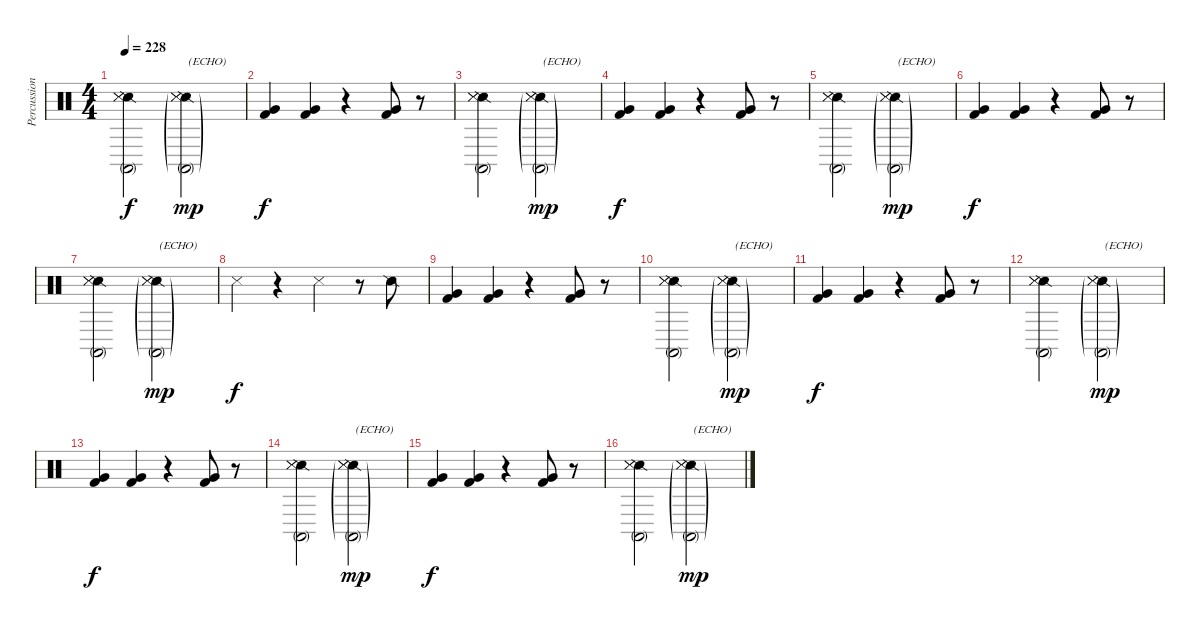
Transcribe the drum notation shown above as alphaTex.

\track ("Percussions" "Percussion") {instrument percussion}
\staff {score}
\articulation defaults
\ts (4 4)
\tempo 228
\clef neutral
\ks c
("Snare (side stick) 2" "Snare (side stick) 3" "Conga high (mute)" "Metronome (hit)").2{dy f} ("Snare (side stick) 2"{g} "Snare (side stick) 3"{g} "Conga high (mute)"{g} "Metronome (hit)"{g}).2{txt "(ECHO)" dy mp} |
("Kick (hit) 2" "Very Low Tom (hit)").4{dy f} ("Kick (hit) 2" "Very Low Tom (hit)").4 r.4 ("Kick (hit) 2" "Very Low Tom (hit)").8 r.8 |
("Snare (side stick) 2" "Snare (side stick) 3" "Conga high (mute)" "Metronome (hit)").2 ("Snare (side stick) 2"{g} "Snare (side stick) 3"{g} "Conga high (mute)"{g} "Metronome (hit)"{g}).2{txt "(ECHO)" dy mp} |
("Kick (hit) 2" "Very Low Tom (hit)").4{dy f} ("Kick (hit) 2" "Very Low Tom (hit)").4 r.4 ("Kick (hit) 2" "Very Low Tom (hit)").8 r.8 |
("Snare (side stick) 2" "Snare (side stick) 3" "Conga high (mute)" "Metronome (hit)").2 ("Snare (side stick) 2"{g} "Snare (side stick) 3"{g} "Conga high (mute)"{g} "Metronome (hit)"{g}).2{txt "(ECHO)" dy mp} |
("Kick (hit) 2" "Very Low Tom (hit)").4{dy f} ("Kick (hit) 2" "Very Low Tom (hit)").4 r.4 ("Kick (hit) 2" "Very Low Tom (hit)").8 r.8 |
("Snare (side stick) 2" "Snare (side stick) 3" "Conga high (mute)" "Metronome (hit)").2 ("Snare (side stick) 2"{g} "Snare (side stick) 3"{g} "Conga high (mute)"{g} "Metronome (hit)"{g}).2{txt "(ECHO)" dy mp} |
"Snare (side stick) 3".4{dy f} r.4 "Snare (side stick) 3".4 r.8 "Snare (side stick) 2".8 |
("Kick (hit) 2" "Very Low Tom (hit)").4 ("Kick (hit) 2" "Very Low Tom (hit)").4 r.4 ("Kick (hit) 2" "Very Low Tom (hit)").8 r.8 |
("Snare (side stick) 2" "Snare (side stick) 3" "Conga high (mute)" "Metronome (hit)").2 ("Snare (side stick) 2"{g} "Snare (side stick) 3"{g} "Conga high (mute)"{g} "Metronome (hit)"{g}).2{txt "(ECHO)" dy mp} |
("Kick (hit) 2" "Very Low Tom (hit)").4{dy f} ("Kick (hit) 2" "Very Low Tom (hit)").4 r.4 ("Kick (hit) 2" "Very Low Tom (hit)").8 r.8 |
("Snare (side stick) 2" "Snare (side stick) 3" "Conga high (mute)" "Metronome (hit)").2 ("Snare (side stick) 2"{g} "Snare (side stick) 3"{g} "Conga high (mute)"{g} "Metronome (hit)"{g}).2{txt "(ECHO)" dy mp} |
("Kick (hit) 2" "Very Low Tom (hit)").4{dy f} ("Kick (hit) 2" "Very Low Tom (hit)").4 r.4 ("Kick (hit) 2" "Very Low Tom (hit)").8 r.8 |
("Snare (side stick) 2" "Snare (side stick) 3" "Conga high (mute)" "Metronome (hit)").2 ("Snare (side stick) 2"{g} "Snare (side stick) 3"{g} "Conga high (mute)"{g} "Metronome (hit)"{g}).2{txt "(ECHO)" dy mp} |
("Kick (hit) 2" "Very Low Tom (hit)").4{dy f} ("Kick (hit) 2" "Very Low Tom (hit)").4 r.4 ("Kick (hit) 2" "Very Low Tom (hit)").8 r.8 |
("Snare (side stick) 2" "Snare (side stick) 3" "Conga high (mute)" "Metronome (hit)").2 ("Snare (side stick) 2"{g} "Snare (side stick) 3"{g} "Conga high (mute)"{g} "Metronome (hit)"{g}).2{txt "(ECHO)" dy mp}
